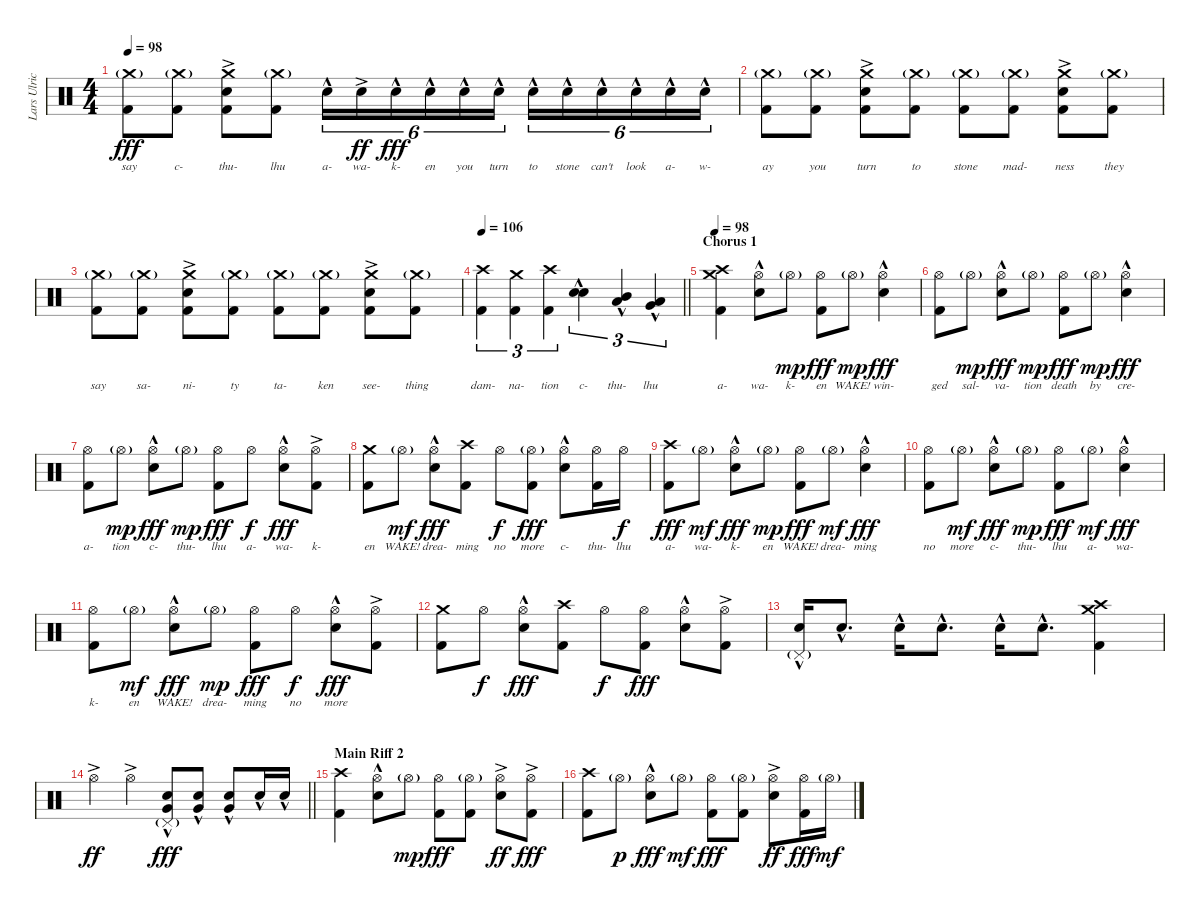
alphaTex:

\track ("Lars Ulrich (Drums)" "Lars Ulric") {instrument percussion}
\staff {score}
\articulation defaults
\ts (4 4)
\tempo 98
\clef neutral
\ks c
("Crash medium (hit)"{g} "Kick (hit) 2").8{lyrics (0 "say") lyrics (1 "") lyrics (2 "") lyrics (3 "") lyrics (4 "") dy fff} ("Crash medium (hit)"{g} "Kick (hit) 2").8{lyrics (0 "c-") lyrics (1 "") lyrics (2 "") lyrics (3 "") lyrics (4 "")} ("Crash medium (hit)" "Electric Snare (hit)"{ac} "Kick (hit) 2").8{lyrics (0 "thu-") lyrics (1 "") lyrics (2 "") lyrics (3 "") lyrics (4 "")} ("Crash medium (hit)"{g} "Kick (hit) 2").8{lyrics (0 "lhu") lyrics (1 "") lyrics (2 "") lyrics (3 "") lyrics (4 "")} "Electric Snare (hit)"{hac}.16{tu (6 4) lyrics (0 "a-") lyrics (1 "") lyrics (2 "") lyrics (3 "") lyrics (4 "")} "Electric Snare (hit)"{ac}.16{tu (6 4) lyrics (0 "wa-") lyrics (1 "") lyrics (2 "") lyrics (3 "") lyrics (4 "") dy ff} "Electric Snare (hit)"{hac}.16{tu (6 4) lyrics (0 "k-") lyrics (1 "") lyrics (2 "") lyrics (3 "") lyrics (4 "") dy fff} "Electric Snare (hit)"{hac}.16{tu (6 4) lyrics (0 "en") lyrics (1 "") lyrics (2 "") lyrics (3 "") lyrics (4 "")} "Electric Snare (hit)"{hac}.16{tu (6 4) lyrics (0 "you") lyrics (1 "") lyrics (2 "") lyrics (3 "") lyrics (4 "")} "Electric Snare (hit)"{hac}.16{tu (6 4) lyrics (0 "turn") lyrics (1 "") lyrics (2 "") lyrics (3 "") lyrics (4 "")} "Electric Snare (hit)"{hac}.16{tu (6 4) lyrics (0 "to") lyrics (1 "") lyrics (2 "") lyrics (3 "") lyrics (4 "")} "Electric Snare (hit)"{hac}.16{tu (6 4) lyrics (0 "stone") lyrics (1 "") lyrics (2 "") lyrics (3 "") lyrics (4 "")} "Electric Snare (hit)"{hac}.16{tu (6 4) lyrics (0 "can't") lyrics (1 "") lyrics (2 "") lyrics (3 "") lyrics (4 "")} "Electric Snare (hit)"{hac}.16{tu (6 4) lyrics (0 "look") lyrics (1 "") lyrics (2 "") lyrics (3 "") lyrics (4 "")} "Electric Snare (hit)"{hac}.16{tu (6 4) lyrics (0 "a-") lyrics (1 "") lyrics (2 "") lyrics (3 "") lyrics (4 "")} "Electric Snare (hit)"{hac}.16{tu (6 4) lyrics (0 "w-") lyrics (1 "") lyrics (2 "") lyrics (3 "") lyrics (4 "")} |
("Crash medium (hit)"{g} "Kick (hit) 2").8{lyrics (0 "ay") lyrics (1 "") lyrics (2 "") lyrics (3 "") lyrics (4 "")} ("Crash medium (hit)"{g} "Kick (hit) 2").8{lyrics (0 "you") lyrics (1 "") lyrics (2 "") lyrics (3 "") lyrics (4 "")} ("Crash medium (hit)" "Electric Snare (hit)"{ac} "Kick (hit) 2").8{lyrics (0 "turn") lyrics (1 "") lyrics (2 "") lyrics (3 "") lyrics (4 "")} ("Crash medium (hit)"{g} "Kick (hit) 2").8{lyrics (0 "to") lyrics (1 "") lyrics (2 "") lyrics (3 "") lyrics (4 "")} ("Crash medium (hit)"{g} "Kick (hit) 2").8{lyrics (0 "stone") lyrics (1 "") lyrics (2 "") lyrics (3 "") lyrics (4 "")} ("Crash medium (hit)"{g} "Kick (hit) 2").8{lyrics (0 "mad-") lyrics (1 "") lyrics (2 "") lyrics (3 "") lyrics (4 "")} ("Crash medium (hit)" "Electric Snare (hit)"{ac} "Kick (hit) 2").8{lyrics (0 "ness") lyrics (1 "") lyrics (2 "") lyrics (3 "") lyrics (4 "")} ("Crash medium (hit)"{g} "Kick (hit) 2").8{lyrics (0 "they") lyrics (1 "") lyrics (2 "") lyrics (3 "") lyrics (4 "")} |
("Crash medium (hit)"{g} "Kick (hit) 2").8{lyrics (0 "say") lyrics (1 "") lyrics (2 "") lyrics (3 "") lyrics (4 "")} ("Crash medium (hit)"{g} "Kick (hit) 2").8{lyrics (0 "sa-") lyrics (1 "") lyrics (2 "") lyrics (3 "") lyrics (4 "")} ("Crash medium (hit)" "Electric Snare (hit)"{ac} "Kick (hit) 2").8{lyrics (0 "ni-") lyrics (1 "") lyrics (2 "") lyrics (3 "") lyrics (4 "")} ("Crash medium (hit)"{g} "Kick (hit) 2").8{lyrics (0 "ty") lyrics (1 "") lyrics (2 "") lyrics (3 "") lyrics (4 "")} ("Crash medium (hit)"{g} "Kick (hit) 2").8{lyrics (0 "ta-") lyrics (1 "") lyrics (2 "") lyrics (3 "") lyrics (4 "")} ("Crash medium (hit)"{g} "Kick (hit) 2").8{lyrics (0 "ken") lyrics (1 "") lyrics (2 "") lyrics (3 "") lyrics (4 "")} ("Crash medium (hit)" "Electric Snare (hit)"{ac} "Kick (hit) 2").8{lyrics (0 "see-") lyrics (1 "") lyrics (2 "") lyrics (3 "") lyrics (4 "")} ("Crash medium (hit)"{g} "Kick (hit) 2").8{lyrics (0 "thing") lyrics (1 "") lyrics (2 "") lyrics (3 "") lyrics (4 "")} |
\tempo 106
\barLineRight lightlight
("Crash high (hit)" "Kick (hit) 2").4{tu (3 2) lyrics (0 "dam-") lyrics (1 "") lyrics (2 "") lyrics (3 "") lyrics (4 "")} ("Crash medium (hit)" "Kick (hit) 2").4{tu (3 2) lyrics (0 "na-") lyrics (1 "") lyrics (2 "") lyrics (3 "") lyrics (4 "")} ("Crash high (hit)" "Kick (hit) 2").4{tu (3 2) lyrics (0 "tion") lyrics (1 "") lyrics (2 "") lyrics (3 "") lyrics (4 "")} ("Electric Snare (hit)"{hac} "Electric Snare (hit)"{hac}).4{tu (3 2) bd 60 lyrics (0 "c-") lyrics (1 "") lyrics (2 "") lyrics (3 "") lyrics (4 "")} ("Mid Tom (hit)"{hac} "Low Tom (hit)"{hac}).4{tu (3 2) bu 60 lyrics (0 "thu-") lyrics (1 "") lyrics (2 "") lyrics (3 "") lyrics (4 "")} ("Low Tom (hit)"{hac} "Very Low Tom (hit)"{hac}).4{tu (3 2) bu 60 lyrics (0 "lhu") lyrics (1 "") lyrics (2 "") lyrics (3 "") lyrics (4 "")} |
\section ("" "Chorus 1")
\tempo 98
("Crash medium (hit)" "Crash high (hit)" "Kick (hit) 2").4{lyrics (0 "a-") lyrics (1 "") lyrics (2 "") lyrics (3 "") lyrics (4 "")} ("Hi-Hat (open)"{hac} "Electric Snare (hit)"{hac}).8{lyrics (0 "wa-") lyrics (1 "") lyrics (2 "") lyrics (3 "") lyrics (4 "")} "Hi-Hat (open)"{g}.8{lyrics (0 "k-") lyrics (1 "") lyrics (2 "") lyrics (3 "") lyrics (4 "") dy mp} ("Hi-Hat (open)" "Kick (hit) 2").8{lyrics (0 "en") lyrics (1 "") lyrics (2 "") lyrics (3 "") lyrics (4 "") dy fff} "Hi-Hat (open)"{g}.8{lyrics (0 "WAKE!") lyrics (1 "") lyrics (2 "") lyrics (3 "") lyrics (4 "") dy mp} ("Hi-Hat (open)"{hac} "Electric Snare (hit)"{hac}).4{lyrics (0 "win-") lyrics (1 "") lyrics (2 "") lyrics (3 "") lyrics (4 "") dy fff} |
("Hi-Hat (open)" "Kick (hit) 2").8{lyrics (0 "ged") lyrics (1 "") lyrics (2 "") lyrics (3 "") lyrics (4 "")} "Hi-Hat (open)"{g}.8{lyrics (0 "sal-") lyrics (1 "") lyrics (2 "") lyrics (3 "") lyrics (4 "") dy mp} ("Hi-Hat (open)"{hac} "Electric Snare (hit)"{hac}).8{lyrics (0 "va-") lyrics (1 "") lyrics (2 "") lyrics (3 "") lyrics (4 "") dy fff} "Hi-Hat (open)"{g}.8{lyrics (0 "tion") lyrics (1 "") lyrics (2 "") lyrics (3 "") lyrics (4 "") dy mp} ("Hi-Hat (open)" "Kick (hit) 2").8{lyrics (0 "death") lyrics (1 "") lyrics (2 "") lyrics (3 "") lyrics (4 "") dy fff} "Hi-Hat (open)"{g}.8{lyrics (0 "by") lyrics (1 "") lyrics (2 "") lyrics (3 "") lyrics (4 "") dy mp} ("Hi-Hat (open)"{hac} "Electric Snare (hit)"{hac}).4{lyrics (0 "cre-") lyrics (1 "") lyrics (2 "") lyrics (3 "") lyrics (4 "") dy fff} |
("Hi-Hat (open)" "Kick (hit) 2").8{lyrics (0 "a-") lyrics (1 "") lyrics (2 "") lyrics (3 "") lyrics (4 "")} "Hi-Hat (open)"{g}.8{lyrics (0 "tion") lyrics (1 "") lyrics (2 "") lyrics (3 "") lyrics (4 "") dy mp} ("Hi-Hat (open)"{hac} "Electric Snare (hit)"{hac}).8{lyrics (0 "c-") lyrics (1 "") lyrics (2 "") lyrics (3 "") lyrics (4 "") dy fff} "Hi-Hat (open)"{g}.8{lyrics (0 "thu-") lyrics (1 "") lyrics (2 "") lyrics (3 "") lyrics (4 "") dy mp} ("Hi-Hat (open)" "Kick (hit) 2").8{lyrics (0 "lhu") lyrics (1 "") lyrics (2 "") lyrics (3 "") lyrics (4 "") dy fff} "Hi-Hat (open)".8{lyrics (0 "a-") lyrics (1 "") lyrics (2 "") lyrics (3 "") lyrics (4 "") dy f} ("Hi-Hat (open)"{hac} "Electric Snare (hit)"{hac}).8{lyrics (0 "wa-") lyrics (1 "") lyrics (2 "") lyrics (3 "") lyrics (4 "") dy fff} ("Hi-Hat (open)"{ac} "Kick (hit) 2").8{lyrics (0 "k-") lyrics (1 "") lyrics (2 "") lyrics (3 "") lyrics (4 "")} |
("Crash medium (hit)" "Kick (hit) 2").8{lyrics (0 "en") lyrics (1 "") lyrics (2 "") lyrics (3 "") lyrics (4 "")} "Hi-Hat (open)"{g}.8{lyrics (0 "WAKE!") lyrics (1 "") lyrics (2 "") lyrics (3 "") lyrics (4 "") dy mf} ("Hi-Hat (open)"{hac} "Electric Snare (hit)"{hac}).8{lyrics (0 "drea-") lyrics (1 "") lyrics (2 "") lyrics (3 "") lyrics (4 "") dy fff} ("Crash high (hit)" "Kick (hit) 2").8{lyrics (0 "ming") lyrics (1 "") lyrics (2 "") lyrics (3 "") lyrics (4 "")} "Hi-Hat (open)".8{lyrics (0 "no") lyrics (1 "") lyrics (2 "") lyrics (3 "") lyrics (4 "") dy f} ("Hi-Hat (open)"{g} "Kick (hit) 2").8{lyrics (0 "more") lyrics (1 "") lyrics (2 "") lyrics (3 "") lyrics (4 "") dy fff} ("Hi-Hat (open)"{hac} "Electric Snare (hit)"{hac}).8{lyrics (0 "c-") lyrics (1 "") lyrics (2 "") lyrics (3 "") lyrics (4 "")} ("Hi-Hat (open)" "Kick (hit) 2").16{lyrics (0 "thu-") lyrics (1 "") lyrics (2 "") lyrics (3 "") lyrics (4 "")} "Hi-Hat (open)".16{lyrics (0 "lhu") lyrics (1 "") lyrics (2 "") lyrics (3 "") lyrics (4 "") dy f} |
("Crash high (hit)" "Kick (hit) 2").8{lyrics (0 "a-") lyrics (1 "") lyrics (2 "") lyrics (3 "") lyrics (4 "") dy fff} "Hi-Hat (open)"{g}.8{lyrics (0 "wa-") lyrics (1 "") lyrics (2 "") lyrics (3 "") lyrics (4 "") dy mf} ("Hi-Hat (open)"{hac} "Electric Snare (hit)"{hac}).8{lyrics (0 "k-") lyrics (1 "") lyrics (2 "") lyrics (3 "") lyrics (4 "") dy fff} "Hi-Hat (open)"{g}.8{lyrics (0 "en") lyrics (1 "") lyrics (2 "") lyrics (3 "") lyrics (4 "") dy mp} ("Hi-Hat (open)" "Kick (hit) 2").8{lyrics (0 "WAKE!") lyrics (1 "") lyrics (2 "") lyrics (3 "") lyrics (4 "") dy fff} "Hi-Hat (open)"{g}.8{lyrics (0 "drea-") lyrics (1 "") lyrics (2 "") lyrics (3 "") lyrics (4 "") dy mf} ("Hi-Hat (open)"{hac} "Electric Snare (hit)"{hac}).4{lyrics (0 "ming") lyrics (1 "") lyrics (2 "") lyrics (3 "") lyrics (4 "") dy fff} |
("Hi-Hat (open)" "Kick (hit) 2").8{lyrics (0 "no") lyrics (1 "") lyrics (2 "") lyrics (3 "") lyrics (4 "")} "Hi-Hat (open)"{g}.8{lyrics (0 "more") lyrics (1 "") lyrics (2 "") lyrics (3 "") lyrics (4 "") dy mf} ("Hi-Hat (open)"{hac} "Electric Snare (hit)"{hac}).8{lyrics (0 "c-") lyrics (1 "") lyrics (2 "") lyrics (3 "") lyrics (4 "") dy fff} "Hi-Hat (open)"{g}.8{lyrics (0 "thu-") lyrics (1 "") lyrics (2 "") lyrics (3 "") lyrics (4 "") dy mp} ("Hi-Hat (open)" "Kick (hit) 2").8{lyrics (0 "lhu") lyrics (1 "") lyrics (2 "") lyrics (3 "") lyrics (4 "") dy fff} "Hi-Hat (open)"{g}.8{lyrics (0 "a-") lyrics (1 "") lyrics (2 "") lyrics (3 "") lyrics (4 "") dy mf} ("Hi-Hat (open)"{hac} "Electric Snare (hit)"{hac}).4{lyrics (0 "wa-") lyrics (1 "") lyrics (2 "") lyrics (3 "") lyrics (4 "") dy fff} |
("Hi-Hat (open)" "Kick (hit) 2").8{lyrics (0 "k-") lyrics (1 "") lyrics (2 "") lyrics (3 "") lyrics (4 "")} "Hi-Hat (open)"{g}.8{lyrics (0 "en") lyrics (1 "") lyrics (2 "") lyrics (3 "") lyrics (4 "") dy mf} ("Hi-Hat (open)"{hac} "Electric Snare (hit)"{hac}).8{lyrics (0 "WAKE!") lyrics (1 "") lyrics (2 "") lyrics (3 "") lyrics (4 "") dy fff} "Hi-Hat (open)"{g}.8{lyrics (0 "drea-") lyrics (1 "") lyrics (2 "") lyrics (3 "") lyrics (4 "") dy mp} ("Hi-Hat (open)" "Kick (hit) 2").8{lyrics (0 "ming") lyrics (1 "") lyrics (2 "") lyrics (3 "") lyrics (4 "") dy fff} "Hi-Hat (open)".8{lyrics (0 "no") lyrics (1 "") lyrics (2 "") lyrics (3 "") lyrics (4 "") dy f} ("Hi-Hat (open)"{hac} "Electric Snare (hit)"{hac}).8{lyrics (0 "more") lyrics (1 "") lyrics (2 "") lyrics (3 "") lyrics (4 "") dy fff} ("Hi-Hat (open)"{ac} "Kick (hit) 2").8 |
("Crash medium (hit)" "Kick (hit) 2").8 "Hi-Hat (open)".8{dy f} ("Hi-Hat (open)"{hac} "Electric Snare (hit)"{hac}).8{dy fff} ("Crash high (hit)" "Kick (hit) 2").8 "Hi-Hat (open)".8{dy f} ("Hi-Hat (open)" "Kick (hit) 2").8{dy fff} ("Hi-Hat (open)"{hac} "Electric Snare (hit)"{hac}).8 ("Hi-Hat (open)"{ac} "Kick (hit) 2").8 |
("Pedal Hi-Hat (hit)"{g} "Electric Snare (hit)"{hac}).16 "Electric Snare (hit)"{hac}.8{d} "Electric Snare (hit)"{hac}.16 "Electric Snare (hit)"{hac}.8{d} "Electric Snare (hit)"{hac}.16 "Electric Snare (hit)"{hac}.8{d} ("Crash medium (hit)" "Crash high (hit)" "Kick (hit) 2").4 |
\barLineRight lightlight "Hi-Hat (open)"{ac}.4{dy ff} "Hi-Hat (open)"{ac}.4
("Pedal Hi-Hat (hit)"{g} "Electric Snare (hit)"{hac} "Very Low Tom (hit)"{hac}).8{dy fff} ("Electric Snare (hit)"{hac} "Very Low Tom (hit)"{hac}).8 ("Electric Snare (hit)"{hac} "Very Low Tom (hit)"{hac}).8 "Electric Snare (hit)"{hac}.16 "Electric Snare (hit)"{hac}.16 |
\section ("" "Main Riff 2")
("Crash high (hit)" "Kick (hit) 2").4 ("Hi-Hat (open)"{hac} "Electric Snare (hit)"{hac}).8 "Hi-Hat (open)"{g}.8{dy mp} ("Hi-Hat (open)" "Kick (hit) 2").8{dy fff} ("Hi-Hat (open)"{g} "Kick (hit) 2").8 ("Hi-Hat (open)"{ac} "Electric Snare (hit)"{ac}).8{dy ff} ("Hi-Hat (open)"{ac} "Kick (hit) 2").8{dy fff} |
("Crash high (hit)" "Kick (hit) 2").8 "Hi-Hat (open)"{g}.8{dy p} ("Hi-Hat (open)"{hac} "Electric Snare (hit)"{hac}).8{dy fff} "Hi-Hat (open)"{g}.8{dy mf} ("Hi-Hat (open)" "Kick (hit) 2").8{dy fff} ("Hi-Hat (open)"{g} "Kick (hit) 2").8 ("Hi-Hat (open)"{ac} "Electric Snare (hit)"{ac}).8{dy ff} ("Hi-Hat (open)" "Kick (hit) 2").16{dy fff} "Hi-Hat (open)"{g}.16{dy mf}
